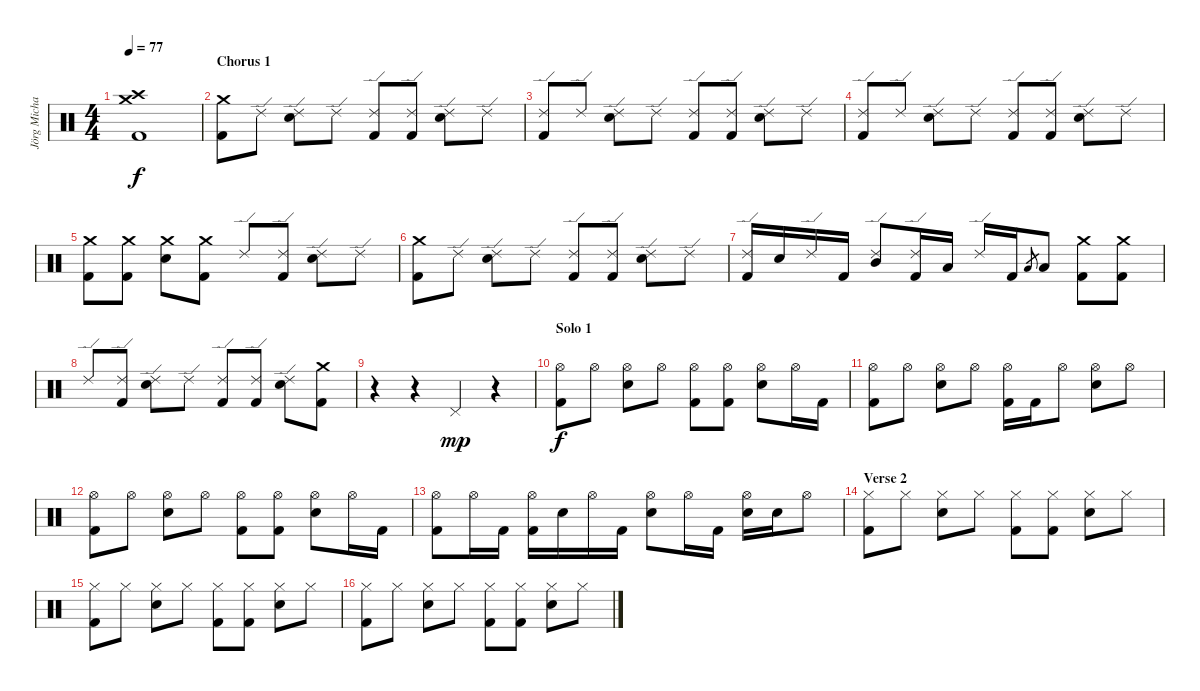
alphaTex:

\track ("Jörg Michael" "Jörg Micha") {instrument percussion}
\staff {score}
\articulation defaults
\ts (4 4)
\tempo 77
\clef neutral
\ks c
("Crash medium (hit)" "Crash high (hit)" "Kick (hit) 2").1{dy f} |
\section ("" "Chorus 1")
("Crash medium (hit)" "Kick (hit) 2").8 "Ride (edge) 2".8 ("Ride (edge) 2" "Electric Snare (hit)").8 "Ride (edge) 2".8 ("Ride (edge) 2" "Kick (hit) 2").8 ("Ride (edge) 2" "Kick (hit) 2").8 ("Ride (edge) 2" "Electric Snare (hit)").8 "Ride (edge) 2".8 |
("Ride (edge) 2" "Kick (hit) 2").8 "Ride (edge) 2".8 ("Ride (edge) 2" "Electric Snare (hit)").8 "Ride (edge) 2".8 ("Ride (edge) 2" "Kick (hit) 2").8 ("Ride (edge) 2" "Kick (hit) 2").8 ("Ride (edge) 2" "Electric Snare (hit)").8 "Ride (edge) 2".8 |
("Ride (edge) 2" "Kick (hit) 2").8 "Ride (edge) 2".8 ("Ride (edge) 2" "Electric Snare (hit)").8 "Ride (edge) 2".8 ("Ride (edge) 2" "Kick (hit) 2").8 ("Ride (edge) 2" "Kick (hit) 2").8 ("Ride (edge) 2" "Electric Snare (hit)").8 "Ride (edge) 2".8 |
("Crash medium (hit)" "Kick (hit) 2").8 ("Crash medium (hit)" "Kick (hit) 2").8 ("Crash medium (hit)" "Electric Snare (hit)").8 ("Crash medium (hit)" "Kick (hit) 2").8 "Ride (edge) 2".8 ("Ride (edge) 2" "Kick (hit) 2").8 ("Ride (edge) 2" "Electric Snare (hit)").8 "Ride (edge) 2".8 |
("Crash medium (hit)" "Kick (hit) 2").8 "Ride (edge) 2".8 ("Ride (edge) 2" "Electric Snare (hit)").8 "Ride (edge) 2".8 ("Ride (edge) 2" "Kick (hit) 2").8 ("Ride (edge) 2" "Kick (hit) 2").8 ("Ride (edge) 2" "Electric Snare (hit)").8 "Ride (edge) 2".8 |
("Ride (edge) 2" "Kick (hit) 2").16 "Electric Snare (hit)".16 "Ride (edge) 2".16 "Kick (hit) 2".16 ("Ride (edge) 2" "Mid Tom (hit)").8 ("Ride (edge) 2" "Kick (hit) 2").16 "Low Tom (hit)".16 "Ride (edge) 2".16 "Kick (hit) 2".16 "Low Tom (hit)".8{gr} "Low Tom (hit)".8 ("Crash medium (hit)" "Kick (hit) 2").8 ("Crash medium (hit)" "Kick (hit) 2").8 |
"Ride (edge) 2".8 ("Ride (edge) 2" "Kick (hit) 2").8 ("Ride (edge) 2" "Electric Snare (hit)").8 "Ride (edge) 2".8 ("Ride (edge) 2" "Kick (hit) 2").8 ("Ride (edge) 2" "Kick (hit) 2").8 ("Ride (edge) 2" "Electric Snare (hit)").8 ("Crash medium (hit)" "Kick (hit) 2").8 |
r.4 r.4 "Pedal Hi-Hat (hit)".4{dy mp} r.4 |
\section ("" "Solo 1")
("Hi-Hat (open)" "Kick (hit) 2").8{dy f} "Hi-Hat (open)".8 ("Hi-Hat (open)" "Electric Snare (hit)").8 "Hi-Hat (open)".8 ("Hi-Hat (open)" "Kick (hit) 2").8 ("Hi-Hat (open)" "Kick (hit) 2").8 ("Hi-Hat (open)" "Electric Snare (hit)").8 "Hi-Hat (open)".16 "Kick (hit) 2".16 |
("Hi-Hat (open)" "Kick (hit) 2").8 "Hi-Hat (open)".8 ("Hi-Hat (open)" "Electric Snare (hit)").8 "Hi-Hat (open)".8 ("Hi-Hat (open)" "Kick (hit) 2").16 "Kick (hit) 2".16 "Hi-Hat (open)".8 ("Hi-Hat (open)" "Electric Snare (hit)").8 "Hi-Hat (open)".8 |
("Hi-Hat (open)" "Kick (hit) 2").8 "Hi-Hat (open)".8 ("Hi-Hat (open)" "Electric Snare (hit)").8 "Hi-Hat (open)".8 ("Hi-Hat (open)" "Kick (hit) 2").8 ("Hi-Hat (open)" "Kick (hit) 2").8 ("Hi-Hat (open)" "Electric Snare (hit)").8 "Hi-Hat (open)".16 "Kick (hit) 2".16 |
("Hi-Hat (open)" "Kick (hit) 2").8 "Hi-Hat (open)".16 "Kick (hit) 2".16 ("Hi-Hat (open)" "Kick (hit) 2").16 "Electric Snare (hit)".16 "Hi-Hat (open)".16 "Kick (hit) 2".16 ("Hi-Hat (open)" "Electric Snare (hit)").8 "Hi-Hat (open)".16 "Kick (hit) 2".16 ("Hi-Hat (open)" "Electric Snare (hit)").16 "Electric Snare (hit)".16 "Hi-Hat (open)".8 |
\section ("" "Verse 2")
("Hi-Hat (closed)" "Kick (hit) 2").8 "Hi-Hat (closed)".8 ("Hi-Hat (closed)" "Electric Snare (hit)").8 "Hi-Hat (closed)".8 ("Hi-Hat (closed)" "Kick (hit) 2").8 ("Hi-Hat (closed)" "Kick (hit) 2").8 ("Hi-Hat (closed)" "Electric Snare (hit)").8 "Hi-Hat (closed)".8 |
("Hi-Hat (closed)" "Kick (hit) 2").8 "Hi-Hat (closed)".8 ("Hi-Hat (closed)" "Electric Snare (hit)").8 "Hi-Hat (closed)".8 ("Hi-Hat (closed)" "Kick (hit) 2").8 ("Hi-Hat (closed)" "Kick (hit) 2").8 ("Hi-Hat (closed)" "Electric Snare (hit)").8 "Hi-Hat (closed)".8 |
("Hi-Hat (closed)" "Kick (hit) 2").8 "Hi-Hat (closed)".8 ("Hi-Hat (closed)" "Electric Snare (hit)").8 "Hi-Hat (closed)".8 ("Hi-Hat (closed)" "Kick (hit) 2").8 ("Hi-Hat (closed)" "Kick (hit) 2").8 ("Hi-Hat (closed)" "Electric Snare (hit)").8 "Hi-Hat (closed)".8
